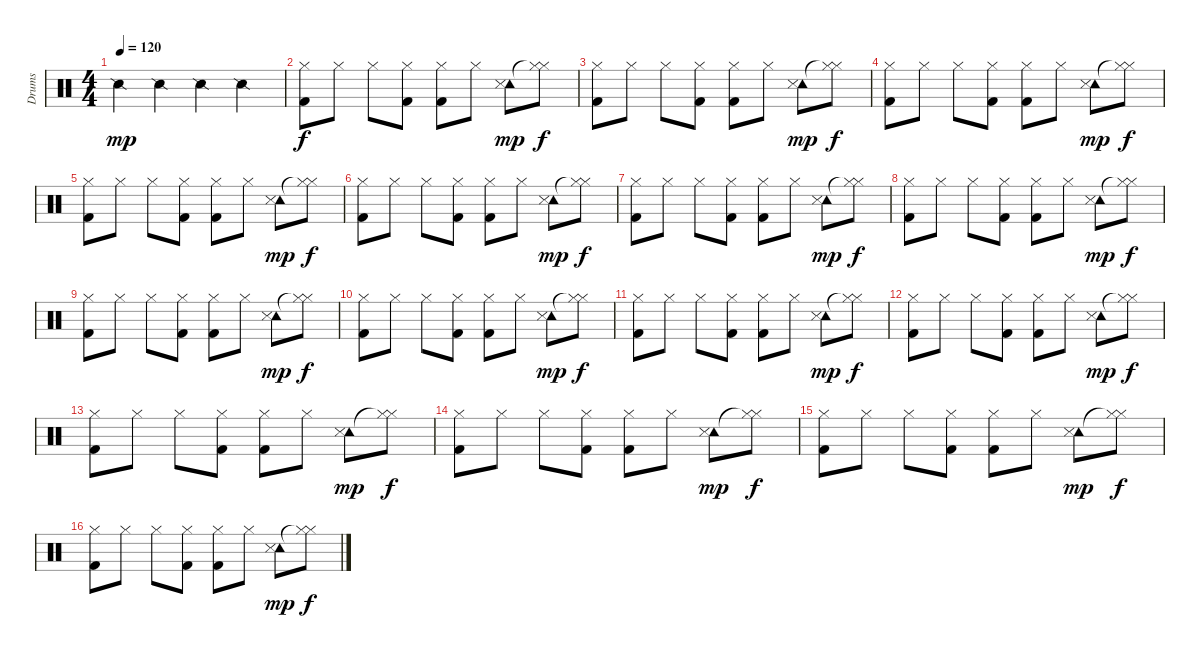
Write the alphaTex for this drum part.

\track ("Drums" "Drums") {instrument percussion}
\staff {score}
\articulation defaults
\ts (4 4)
\tempo 120
\clef neutral
\ks c "Snare (side stick) 2".4{dy mp} "Snare (side stick) 2".4 "Snare (side stick) 2".4 "Snare (side stick) 2".4
|
("Hi-Hat (closed)" "Kick (hit) 2").8{dy f} "Hi-Hat (closed)".8 "Hi-Hat (closed)".8 ("Hi-Hat (closed)" "Kick (hit) 2").8 ("Hi-Hat (closed)" "Kick (hit) 2").8 "Hi-Hat (closed)".8 ("Tambourine (hit)" "Snare (side stick) 3").8{dy mp} ("Hi-Hat (closed)"{t} "Hi-Hat (closed)").8{dy f} |
("Hi-Hat (closed)" "Kick (hit) 2").8 "Hi-Hat (closed)".8 "Hi-Hat (closed)".8 ("Hi-Hat (closed)" "Kick (hit) 2").8 ("Hi-Hat (closed)" "Kick (hit) 2").8 "Hi-Hat (closed)".8 ("Tambourine (hit)" "Snare (side stick) 3").8{dy mp} ("Hi-Hat (closed)"{t} "Hi-Hat (closed)").8{dy f} |
("Hi-Hat (closed)" "Kick (hit) 2").8 "Hi-Hat (closed)".8 "Hi-Hat (closed)".8 ("Hi-Hat (closed)" "Kick (hit) 2").8 ("Hi-Hat (closed)" "Kick (hit) 2").8 "Hi-Hat (closed)".8 ("Tambourine (hit)" "Snare (side stick) 3").8{dy mp} ("Hi-Hat (closed)"{t} "Hi-Hat (closed)").8{dy f} |
("Hi-Hat (closed)" "Kick (hit) 2").8 "Hi-Hat (closed)".8 "Hi-Hat (closed)".8 ("Hi-Hat (closed)" "Kick (hit) 2").8 ("Hi-Hat (closed)" "Kick (hit) 2").8 "Hi-Hat (closed)".8 ("Tambourine (hit)" "Snare (side stick) 3").8{dy mp} ("Hi-Hat (closed)"{t} "Hi-Hat (closed)").8{dy f} |
("Hi-Hat (closed)" "Kick (hit) 2").8 "Hi-Hat (closed)".8 "Hi-Hat (closed)".8 ("Hi-Hat (closed)" "Kick (hit) 2").8 ("Hi-Hat (closed)" "Kick (hit) 2").8 "Hi-Hat (closed)".8 ("Tambourine (hit)" "Snare (side stick) 3").8{dy mp} ("Hi-Hat (closed)"{t} "Hi-Hat (closed)").8{dy f} |
("Hi-Hat (closed)" "Kick (hit) 2").8 "Hi-Hat (closed)".8 "Hi-Hat (closed)".8 ("Hi-Hat (closed)" "Kick (hit) 2").8 ("Hi-Hat (closed)" "Kick (hit) 2").8 "Hi-Hat (closed)".8 ("Tambourine (hit)" "Snare (side stick) 3").8{dy mp} ("Hi-Hat (closed)"{t} "Hi-Hat (closed)").8{dy f} |
("Hi-Hat (closed)" "Kick (hit) 2").8 "Hi-Hat (closed)".8 "Hi-Hat (closed)".8 ("Hi-Hat (closed)" "Kick (hit) 2").8 ("Hi-Hat (closed)" "Kick (hit) 2").8 "Hi-Hat (closed)".8 ("Tambourine (hit)" "Snare (side stick) 3").8{dy mp} ("Hi-Hat (closed)"{t} "Hi-Hat (closed)").8{dy f} |
("Hi-Hat (closed)" "Kick (hit) 2").8 "Hi-Hat (closed)".8 "Hi-Hat (closed)".8 ("Hi-Hat (closed)" "Kick (hit) 2").8 ("Hi-Hat (closed)" "Kick (hit) 2").8 "Hi-Hat (closed)".8 ("Tambourine (hit)" "Snare (side stick) 3").8{dy mp} ("Hi-Hat (closed)"{t} "Hi-Hat (closed)").8{dy f} |
("Hi-Hat (closed)" "Kick (hit) 2").8 "Hi-Hat (closed)".8 "Hi-Hat (closed)".8 ("Hi-Hat (closed)" "Kick (hit) 2").8 ("Hi-Hat (closed)" "Kick (hit) 2").8 "Hi-Hat (closed)".8 ("Tambourine (hit)" "Snare (side stick) 3").8{dy mp} ("Hi-Hat (closed)"{t} "Hi-Hat (closed)").8{dy f} |
("Hi-Hat (closed)" "Kick (hit) 2").8 "Hi-Hat (closed)".8 "Hi-Hat (closed)".8 ("Hi-Hat (closed)" "Kick (hit) 2").8 ("Hi-Hat (closed)" "Kick (hit) 2").8 "Hi-Hat (closed)".8 ("Tambourine (hit)" "Snare (side stick) 3").8{dy mp} ("Hi-Hat (closed)"{t} "Hi-Hat (closed)").8{dy f} |
("Hi-Hat (closed)" "Kick (hit) 2").8 "Hi-Hat (closed)".8 "Hi-Hat (closed)".8 ("Hi-Hat (closed)" "Kick (hit) 2").8 ("Hi-Hat (closed)" "Kick (hit) 2").8 "Hi-Hat (closed)".8 ("Tambourine (hit)" "Snare (side stick) 3").8{dy mp} ("Hi-Hat (closed)"{t} "Hi-Hat (closed)").8{dy f} |
("Hi-Hat (closed)" "Kick (hit) 2").8 "Hi-Hat (closed)".8 "Hi-Hat (closed)".8 ("Hi-Hat (closed)" "Kick (hit) 2").8 ("Hi-Hat (closed)" "Kick (hit) 2").8 "Hi-Hat (closed)".8 ("Tambourine (hit)" "Snare (side stick) 3").8{dy mp} ("Hi-Hat (closed)"{t} "Hi-Hat (closed)").8{dy f} |
("Hi-Hat (closed)" "Kick (hit) 2").8 "Hi-Hat (closed)".8 "Hi-Hat (closed)".8 ("Hi-Hat (closed)" "Kick (hit) 2").8 ("Hi-Hat (closed)" "Kick (hit) 2").8 "Hi-Hat (closed)".8 ("Tambourine (hit)" "Snare (side stick) 3").8{dy mp} ("Hi-Hat (closed)"{t} "Hi-Hat (closed)").8{dy f} |
("Hi-Hat (closed)" "Kick (hit) 2").8 "Hi-Hat (closed)".8 "Hi-Hat (closed)".8 ("Hi-Hat (closed)" "Kick (hit) 2").8 ("Hi-Hat (closed)" "Kick (hit) 2").8 "Hi-Hat (closed)".8 ("Tambourine (hit)" "Snare (side stick) 3").8{dy mp} ("Hi-Hat (closed)"{t} "Hi-Hat (closed)").8{dy f} |
("Hi-Hat (closed)" "Kick (hit) 2").8 "Hi-Hat (closed)".8 "Hi-Hat (closed)".8 ("Hi-Hat (closed)" "Kick (hit) 2").8 ("Hi-Hat (closed)" "Kick (hit) 2").8 "Hi-Hat (closed)".8 ("Tambourine (hit)" "Snare (side stick) 3").8{dy mp} ("Hi-Hat (closed)"{t} "Hi-Hat (closed)").8{dy f}
